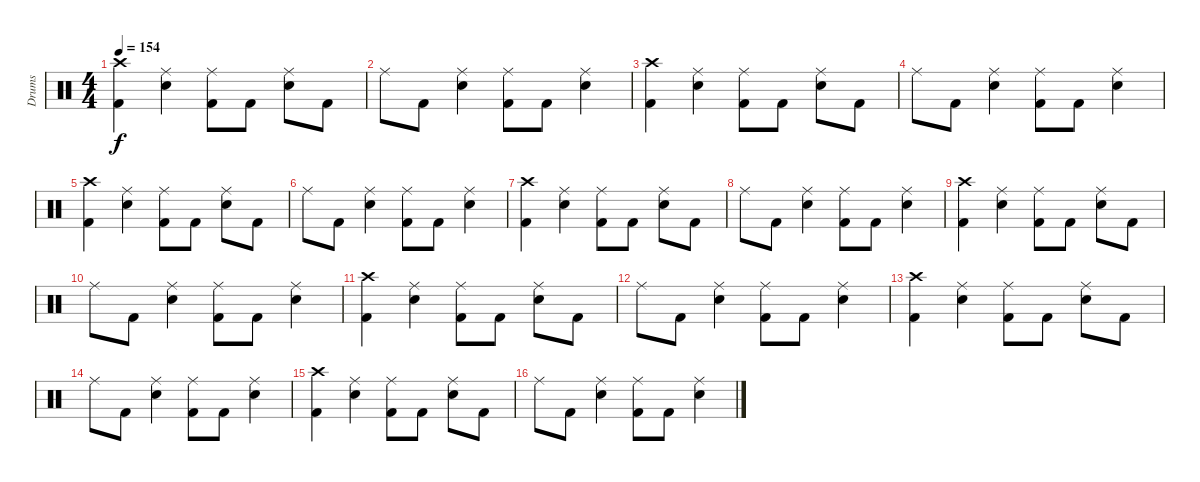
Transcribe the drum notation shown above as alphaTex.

\track ("Drums" "Drums") {instrument percussion}
\staff {score}
\articulation defaults
\ts (4 4)
\tempo 154
\clef neutral
\ks c
("Crash high (hit)" "Kick (hit) 2").4{dy f} ("Ride (middle)" "Snare (hit) 2").4 ("Ride (middle)" "Kick (hit) 2").8 "Kick (hit) 2".8 ("Ride (middle)" "Snare (hit) 2").8 "Kick (hit) 2".8 |
"Ride (middle)".8 "Kick (hit) 2".8 ("Ride (middle)" "Snare (hit) 2").4 ("Ride (middle)" "Kick (hit) 2").8 "Kick (hit) 2".8 ("Ride (middle)" "Snare (hit) 2").4 |
("Crash high (hit)" "Kick (hit) 2").4 ("Ride (middle)" "Snare (hit) 2").4 ("Ride (middle)" "Kick (hit) 2").8 "Kick (hit) 2".8 ("Ride (middle)" "Snare (hit) 2").8 "Kick (hit) 2".8 |
"Ride (middle)".8 "Kick (hit) 2".8 ("Ride (middle)" "Snare (hit) 2").4 ("Ride (middle)" "Kick (hit) 2").8 "Kick (hit) 2".8 ("Ride (middle)" "Snare (hit) 2").4 |
("Crash high (hit)" "Kick (hit) 2").4 ("Ride (middle)" "Snare (hit) 2").4 ("Ride (middle)" "Kick (hit) 2").8 "Kick (hit) 2".8 ("Ride (middle)" "Snare (hit) 2").8 "Kick (hit) 2".8 |
"Ride (middle)".8 "Kick (hit) 2".8 ("Ride (middle)" "Snare (hit) 2").4 ("Ride (middle)" "Kick (hit) 2").8 "Kick (hit) 2".8 ("Ride (middle)" "Snare (hit) 2").4 |
("Crash high (hit)" "Kick (hit) 2").4 ("Ride (middle)" "Snare (hit) 2").4 ("Ride (middle)" "Kick (hit) 2").8 "Kick (hit) 2".8 ("Ride (middle)" "Snare (hit) 2").8 "Kick (hit) 2".8 |
"Ride (middle)".8 "Kick (hit) 2".8 ("Ride (middle)" "Snare (hit) 2").4 ("Ride (middle)" "Kick (hit) 2").8 "Kick (hit) 2".8 ("Ride (middle)" "Snare (hit) 2").4 |
("Crash high (hit)" "Kick (hit) 2").4 ("Ride (middle)" "Snare (hit) 2").4 ("Ride (middle)" "Kick (hit) 2").8 "Kick (hit) 2".8 ("Ride (middle)" "Snare (hit) 2").8 "Kick (hit) 2".8 |
"Ride (middle)".8 "Kick (hit) 2".8 ("Ride (middle)" "Snare (hit) 2").4 ("Ride (middle)" "Kick (hit) 2").8 "Kick (hit) 2".8 ("Ride (middle)" "Snare (hit) 2").4 |
("Crash high (hit)" "Kick (hit) 2").4 ("Ride (middle)" "Snare (hit) 2").4 ("Ride (middle)" "Kick (hit) 2").8 "Kick (hit) 2".8 ("Ride (middle)" "Snare (hit) 2").8 "Kick (hit) 2".8 |
"Ride (middle)".8 "Kick (hit) 2".8 ("Ride (middle)" "Snare (hit) 2").4 ("Ride (middle)" "Kick (hit) 2").8 "Kick (hit) 2".8 ("Ride (middle)" "Snare (hit) 2").4 |
("Crash high (hit)" "Kick (hit) 2").4 ("Ride (middle)" "Snare (hit) 2").4 ("Ride (middle)" "Kick (hit) 2").8 "Kick (hit) 2".8 ("Ride (middle)" "Snare (hit) 2").8 "Kick (hit) 2".8 |
"Ride (middle)".8 "Kick (hit) 2".8 ("Ride (middle)" "Snare (hit) 2").4 ("Ride (middle)" "Kick (hit) 2").8 "Kick (hit) 2".8 ("Ride (middle)" "Snare (hit) 2").4 |
("Crash high (hit)" "Kick (hit) 2").4 ("Ride (middle)" "Snare (hit) 2").4 ("Ride (middle)" "Kick (hit) 2").8 "Kick (hit) 2".8 ("Ride (middle)" "Snare (hit) 2").8 "Kick (hit) 2".8 |
"Ride (middle)".8 "Kick (hit) 2".8 ("Ride (middle)" "Snare (hit) 2").4 ("Ride (middle)" "Kick (hit) 2").8 "Kick (hit) 2".8 ("Ride (middle)" "Snare (hit) 2").4
